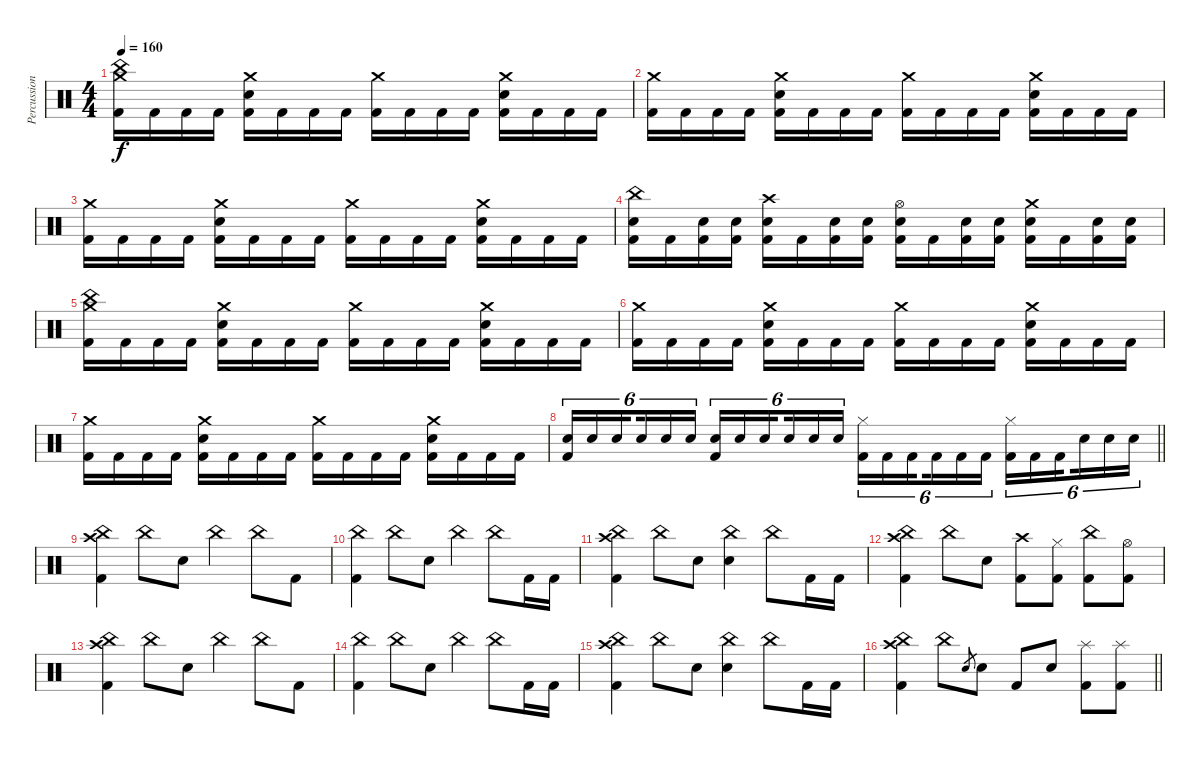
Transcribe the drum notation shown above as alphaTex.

\track ("Percussions" "Percussion") {instrument percussion}
\staff {score}
\articulation defaults
\ts (4 4)
\tempo 160
\clef neutral
\ks c
("Crash medium (hit)" "China (hit)" "Kick (hit) 2").16{dy f} "Kick (hit) 2".16 "Kick (hit) 2".16 "Kick (hit) 2".16 ("Crash medium (hit)" "Electric Snare (hit)" "Kick (hit) 2").16 "Kick (hit) 2".16 "Kick (hit) 2".16 "Kick (hit) 2".16 ("Crash medium (hit)" "Kick (hit) 2").16 "Kick (hit) 2".16 "Kick (hit) 2".16 "Kick (hit) 2".16 ("Crash medium (hit)" "Electric Snare (hit)" "Kick (hit) 2").16 "Kick (hit) 2".16 "Kick (hit) 2".16 "Kick (hit) 2".16 |
("Crash medium (hit)" "Kick (hit) 2").16 "Kick (hit) 2".16 "Kick (hit) 2".16 "Kick (hit) 2".16 ("Crash medium (hit)" "Electric Snare (hit)" "Kick (hit) 2").16 "Kick (hit) 2".16 "Kick (hit) 2".16 "Kick (hit) 2".16 ("Crash medium (hit)" "Kick (hit) 2").16 "Kick (hit) 2".16 "Kick (hit) 2".16 "Kick (hit) 2".16 ("Crash medium (hit)" "Electric Snare (hit)" "Kick (hit) 2").16 "Kick (hit) 2".16 "Kick (hit) 2".16 "Kick (hit) 2".16 |
("Crash medium (hit)" "Kick (hit) 2").16 "Kick (hit) 2".16 "Kick (hit) 2".16 "Kick (hit) 2".16 ("Crash medium (hit)" "Electric Snare (hit)" "Kick (hit) 2").16 "Kick (hit) 2".16 "Kick (hit) 2".16 "Kick (hit) 2".16 ("Crash medium (hit)" "Kick (hit) 2").16 "Kick (hit) 2".16 "Kick (hit) 2".16 "Kick (hit) 2".16 ("Crash medium (hit)" "Electric Snare (hit)" "Kick (hit) 2").16 "Kick (hit) 2".16 "Kick (hit) 2".16 "Kick (hit) 2".16 |
("China (hit)" "Electric Snare (hit)" "Kick (hit) 2").16 "Kick (hit) 2".16 ("Electric Snare (hit)" "Kick (hit) 2").16 ("Electric Snare (hit)" "Kick (hit) 2").16 ("Crash high (hit)" "Electric Snare (hit)" "Kick (hit) 2").16 "Kick (hit) 2".16 ("Electric Snare (hit)" "Kick (hit) 2").16 ("Electric Snare (hit)" "Kick (hit) 2").16 ("Hi-Hat (open)" "Electric Snare (hit)" "Kick (hit) 2").16 "Kick (hit) 2".16 ("Electric Snare (hit)" "Kick (hit) 2").16 ("Electric Snare (hit)" "Kick (hit) 2").16 ("Crash medium (hit)" "Electric Snare (hit)" "Kick (hit) 2").16 "Kick (hit) 2".16 ("Electric Snare (hit)" "Kick (hit) 2").16 ("Electric Snare (hit)" "Kick (hit) 2").16 |
("Crash medium (hit)" "China (hit)" "Kick (hit) 2").16 "Kick (hit) 2".16 "Kick (hit) 2".16 "Kick (hit) 2".16 ("Crash medium (hit)" "Electric Snare (hit)" "Kick (hit) 2").16 "Kick (hit) 2".16 "Kick (hit) 2".16 "Kick (hit) 2".16 ("Crash medium (hit)" "Kick (hit) 2").16 "Kick (hit) 2".16 "Kick (hit) 2".16 "Kick (hit) 2".16 ("Crash medium (hit)" "Electric Snare (hit)" "Kick (hit) 2").16 "Kick (hit) 2".16 "Kick (hit) 2".16 "Kick (hit) 2".16 |
("Crash medium (hit)" "Kick (hit) 2").16 "Kick (hit) 2".16 "Kick (hit) 2".16 "Kick (hit) 2".16 ("Crash medium (hit)" "Electric Snare (hit)" "Kick (hit) 2").16 "Kick (hit) 2".16 "Kick (hit) 2".16 "Kick (hit) 2".16 ("Crash medium (hit)" "Kick (hit) 2").16 "Kick (hit) 2".16 "Kick (hit) 2".16 "Kick (hit) 2".16 ("Crash medium (hit)" "Electric Snare (hit)" "Kick (hit) 2").16 "Kick (hit) 2".16 "Kick (hit) 2".16 "Kick (hit) 2".16 |
("Crash medium (hit)" "Kick (hit) 2").16 "Kick (hit) 2".16 "Kick (hit) 2".16 "Kick (hit) 2".16 ("Crash medium (hit)" "Electric Snare (hit)" "Kick (hit) 2").16 "Kick (hit) 2".16 "Kick (hit) 2".16 "Kick (hit) 2".16 ("Crash medium (hit)" "Kick (hit) 2").16 "Kick (hit) 2".16 "Kick (hit) 2".16 "Kick (hit) 2".16 ("Crash medium (hit)" "Electric Snare (hit)" "Kick (hit) 2").16 "Kick (hit) 2".16 "Kick (hit) 2".16 "Kick (hit) 2".16 |
\barLineRight lightlight
("Electric Snare (hit)" "Kick (hit) 2").16{tu (6 4)} "Electric Snare (hit)".16{tu (6 4)} "Electric Snare (hit)".16{tu (6 4) beam splitsecondary} "Electric Snare (hit)".16{tu (6 4)} "Electric Snare (hit)".16{tu (6 4)} "Electric Snare (hit)".16{tu (6 4)} ("Electric Snare (hit)" "Kick (hit) 2").16{tu (6 4)} "Electric Snare (hit)".16{tu (6 4)} "Electric Snare (hit)".16{tu (6 4) beam splitsecondary} "Electric Snare (hit)".16{tu (6 4)} "Electric Snare (hit)".16{tu (6 4)} "Electric Snare (hit)".16{tu (6 4)} ("Hi-Hat (closed)" "Kick (hit) 2").16{tu (6 4)} "Kick (hit) 2".16{tu (6 4)} "Kick (hit) 2".16{tu (6 4) beam splitsecondary} "Kick (hit) 2".16{tu (6 4)} "Kick (hit) 2".16{tu (6 4)} "Kick (hit) 2".16{tu (6 4)} ("Hi-Hat (closed)" "Kick (hit) 2").16{tu (6 4)} "Kick (hit) 2".16{tu (6 4)} "Kick (hit) 2".16{tu (6 4) beam splitsecondary} "Electric Snare (hit)".16{tu (6 4)} "Electric Snare (hit)".16{tu (6 4)} "Electric Snare (hit)".16{tu (6 4)} |
("China (hit)" "Crash high (hit)" "Kick (hit) 2").4 "China (hit)".8 "Electric Snare (hit)".8 "China (hit)".4 "China (hit)".8 "Kick (hit) 2".8 |
("China (hit)" "Kick (hit) 2").4 "China (hit)".8 "Electric Snare (hit)".8 "China (hit)".4 "China (hit)".8 "Kick (hit) 2".16 "Kick (hit) 2".16 |
("China (hit)" "Crash high (hit)" "Kick (hit) 2").4 "China (hit)".8 "Electric Snare (hit)".8 ("China (hit)" "Electric Snare (hit)").4 "China (hit)".8 "Kick (hit) 2".16 "Kick (hit) 2".16 |
("China (hit)" "Crash high (hit)" "Kick (hit) 2").4 "China (hit)".8 "Electric Snare (hit)".8 ("Crash high (hit)" "Kick (hit) 2").8 ("Hi-Hat (closed)" "Kick (hit) 2").8 ("China (hit)" "Kick (hit) 2").8 ("Hi-Hat (open)" "Kick (hit) 2").8 |
("China (hit)" "Crash high (hit)" "Kick (hit) 2").4 "China (hit)".8 "Electric Snare (hit)".8 "China (hit)".4 "China (hit)".8 "Kick (hit) 2".8 |
("China (hit)" "Kick (hit) 2").4 "China (hit)".8 "Electric Snare (hit)".8 "China (hit)".4 "China (hit)".8 "Kick (hit) 2".16 "Kick (hit) 2".16 |
("China (hit)" "Crash high (hit)" "Kick (hit) 2").4 "China (hit)".8 "Electric Snare (hit)".8 ("China (hit)" "Electric Snare (hit)").4 "China (hit)".8 "Kick (hit) 2".16 "Kick (hit) 2".16 |
\barLineRight lightlight
("China (hit)" "Crash high (hit)" "Kick (hit) 2").4 "China (hit)".8 "Electric Snare (hit)".8{gr} "Electric Snare (hit)".8 "Kick (hit) 2".8 "Electric Snare (hit)".8 ("Splash (hit)" "Kick (hit) 2").8 ("Splash (hit)" "Kick (hit) 2").8
